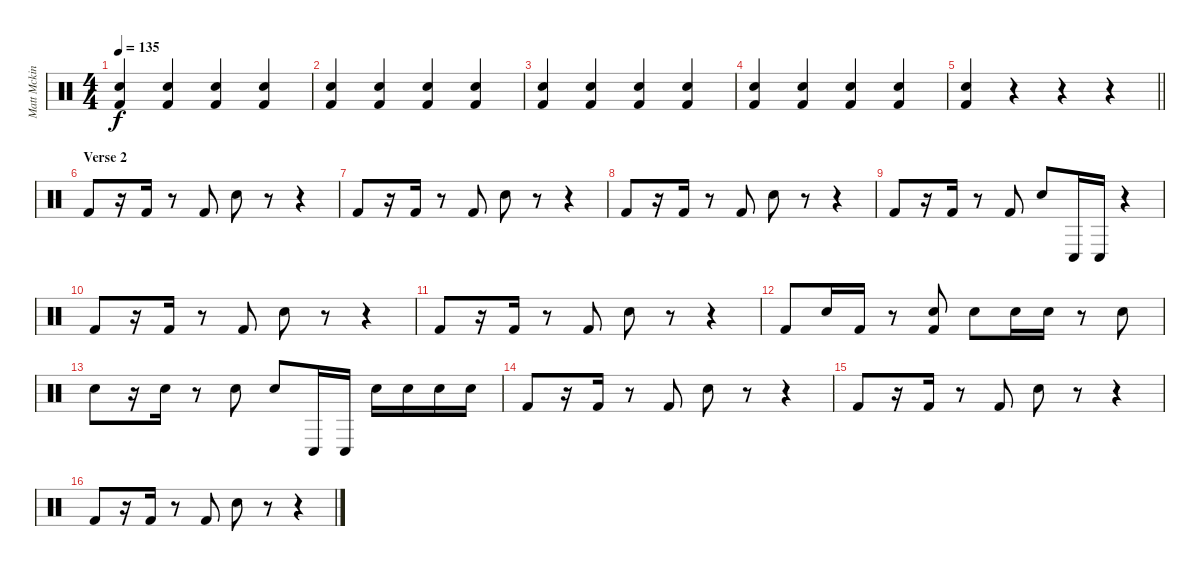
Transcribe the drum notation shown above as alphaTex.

\track ("Matt Mckinley (Drums)" "Matt Mckin") {instrument percussion}
\staff {score}
\articulation defaults
\ts (4 4)
\tempo 135
\clef neutral
\ks c
("Electric Snare (hit)" "Kick (hit) 2").4{dy f} ("Electric Snare (hit)" "Kick (hit) 2").4 ("Electric Snare (hit)" "Kick (hit) 2").4 ("Electric Snare (hit)" "Kick (hit) 2").4 |
("Electric Snare (hit)" "Kick (hit) 2").4 ("Electric Snare (hit)" "Kick (hit) 2").4 ("Electric Snare (hit)" "Kick (hit) 2").4 ("Electric Snare (hit)" "Kick (hit) 2").4 |
("Electric Snare (hit)" "Kick (hit) 2").4 ("Electric Snare (hit)" "Kick (hit) 2").4 ("Electric Snare (hit)" "Kick (hit) 2").4 ("Electric Snare (hit)" "Kick (hit) 2").4 |
("Electric Snare (hit)" "Kick (hit) 2").4 ("Electric Snare (hit)" "Kick (hit) 2").4 ("Electric Snare (hit)" "Kick (hit) 2").4 ("Electric Snare (hit)" "Kick (hit) 2").4 |
\barLineRight lightlight
("Electric Snare (hit)" "Kick (hit) 2").4 r.4 r.4 r.4 |
\section ("" "Verse 2")
"Kick (hit) 2".8 r.16 "Kick (hit) 2".16 r.8 "Kick (hit) 2".8 "Electric Snare (hit)".8 r.8 r.4 |
"Kick (hit) 2".8 r.16 "Kick (hit) 2".16 r.8 "Kick (hit) 2".8 "Electric Snare (hit)".8 r.8 r.4 |
"Kick (hit) 2".8 r.16 "Kick (hit) 2".16 r.8 "Kick (hit) 2".8 "Electric Snare (hit)".8 r.8 r.4 |
"Kick (hit) 2".8 r.16 "Kick (hit) 2".16 r.8 "Kick (hit) 2".8 "Electric Snare (hit)".8 "Conga low (hit)".16 "Conga low (hit)".16 r.4 |
"Kick (hit) 2".8 r.16 "Kick (hit) 2".16 r.8 "Kick (hit) 2".8 "Electric Snare (hit)".8 r.8 r.4 |
"Kick (hit) 2".8 r.16 "Kick (hit) 2".16 r.8 "Kick (hit) 2".8 "Electric Snare (hit)".8 r.8 r.4 |
"Kick (hit) 2".8 "Electric Snare (hit)".16 "Kick (hit) 2".16 r.8 ("Electric Snare (hit)" "Kick (hit) 2").8 "Electric Snare (hit)".8 "Electric Snare (hit)".16 "Electric Snare (hit)".16 r.8 "Electric Snare (hit)".8 |
"Electric Snare (hit)".8 r.16 "Electric Snare (hit)".16 r.8 "Electric Snare (hit)".8 "Electric Snare (hit)".8 "Conga low (hit)".16 "Conga low (hit)".16 "Electric Snare (hit)".16 "Electric Snare (hit)".16 "Electric Snare (hit)".16 "Electric Snare (hit)".16 |
"Kick (hit) 2".8 r.16 "Kick (hit) 2".16 r.8 "Kick (hit) 2".8 "Electric Snare (hit)".8 r.8 r.4 |
"Kick (hit) 2".8 r.16 "Kick (hit) 2".16 r.8 "Kick (hit) 2".8 "Electric Snare (hit)".8 r.8 r.4 |
"Kick (hit) 2".8 r.16 "Kick (hit) 2".16 r.8 "Kick (hit) 2".8 "Electric Snare (hit)".8 r.8 r.4
